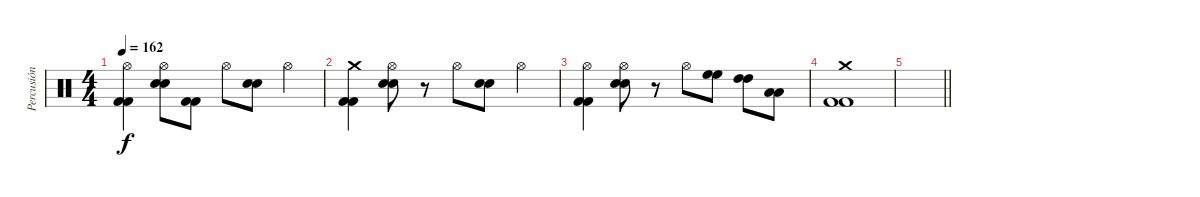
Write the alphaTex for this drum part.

\track ("Percusión" "Percusión") {instrument percussion}
\staff {score}
\articulation defaults
\ts (4 4)
\tempo 162
\clef neutral
\ks c
("Hi-Hat (open)" "Kick (hit) 2" "Kick (hit) 2").4{dy f} ("Hi-Hat (open)" "Electric Snare (hit)" "Electric Snare (hit)").8 ("Kick (hit) 2" "Kick (hit) 2").8 "Hi-Hat (open)".8 ("Electric Snare (hit)" "Electric Snare (hit)").8 "Hi-Hat (open)".4 |
("Crash medium (hit)" "Kick (hit) 2" "Kick (hit) 2").4 ("Hi-Hat (open)" "Electric Snare (hit)" "Electric Snare (hit)").8 r.8 "Hi-Hat (open)".8 ("Electric Snare (hit)" "Electric Snare (hit)").8 "Hi-Hat (open)".4 |
("Hi-Hat (open)" "Kick (hit) 2" "Kick (hit) 2").4 ("Hi-Hat (open)" "Electric Snare (hit)" "Electric Snare (hit)").8 r.8 "Hi-Hat (open)".8 ("High Floor Tom (hit)" "High Floor Tom (hit)").8 ("High Tom (hit)" "High Tom (hit)").8 ("Low Tom (hit)" "Low Tom (hit)").8 |
("Crash medium (hit)" "Kick (hit) 2" "Kick (hit) 2").1 |
\barLineRight lightlight
